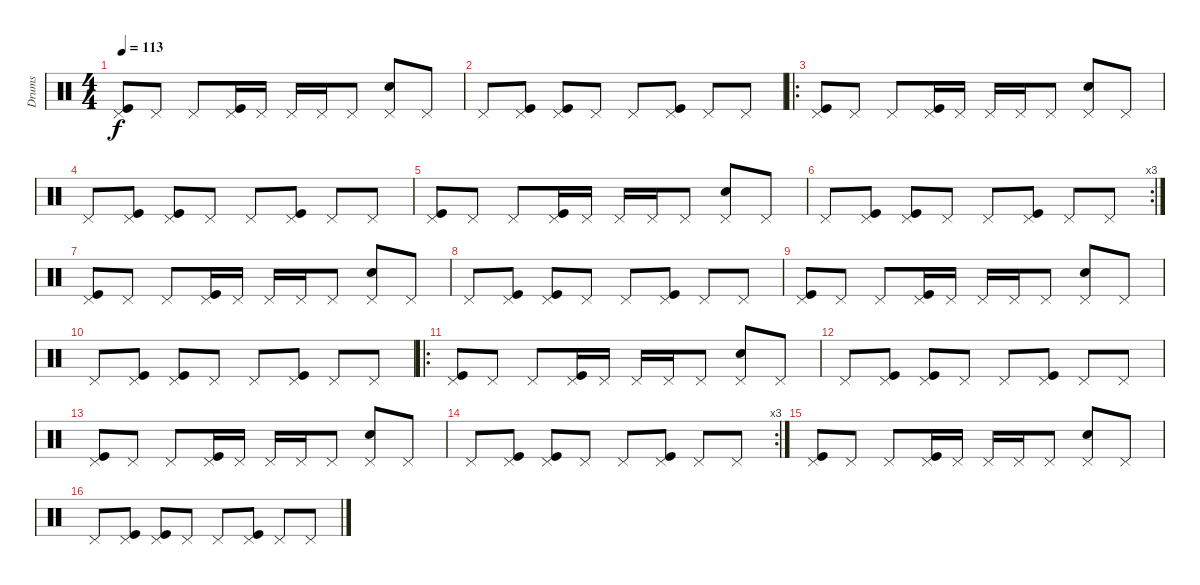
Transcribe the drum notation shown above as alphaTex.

\track ("Drums" "Drums") {instrument percussion}
\staff {score}
\articulation defaults
\ts (4 4)
\tempo 113
\clef neutral
\ks c
("Pedal Hi-Hat (hit)" "Kick (hit)").8{dy f} "Pedal Hi-Hat (hit)".8 "Pedal Hi-Hat (hit)".8 ("Pedal Hi-Hat (hit)" "Kick (hit)").16 "Pedal Hi-Hat (hit)".16 "Pedal Hi-Hat (hit)".16 "Pedal Hi-Hat (hit)".16 "Pedal Hi-Hat (hit)".8 ("Pedal Hi-Hat (hit)" "Snare (hit) 2").8 "Pedal Hi-Hat (hit)".8 |
"Pedal Hi-Hat (hit)".8 ("Pedal Hi-Hat (hit)" "Kick (hit)").8 ("Pedal Hi-Hat (hit)" "Kick (hit)").8 "Pedal Hi-Hat (hit)".8 "Pedal Hi-Hat (hit)".8 ("Pedal Hi-Hat (hit)" "Kick (hit)").8 "Pedal Hi-Hat (hit)".8 "Pedal Hi-Hat (hit)".8 |
\ro
("Pedal Hi-Hat (hit)" "Kick (hit)").8 "Pedal Hi-Hat (hit)".8 "Pedal Hi-Hat (hit)".8 ("Pedal Hi-Hat (hit)" "Kick (hit)").16 "Pedal Hi-Hat (hit)".16 "Pedal Hi-Hat (hit)".16 "Pedal Hi-Hat (hit)".16 "Pedal Hi-Hat (hit)".8 ("Pedal Hi-Hat (hit)" "Snare (hit) 2").8 "Pedal Hi-Hat (hit)".8 |
"Pedal Hi-Hat (hit)".8 ("Pedal Hi-Hat (hit)" "Kick (hit)").8 ("Pedal Hi-Hat (hit)" "Kick (hit)").8 "Pedal Hi-Hat (hit)".8 "Pedal Hi-Hat (hit)".8 ("Pedal Hi-Hat (hit)" "Kick (hit)").8 "Pedal Hi-Hat (hit)".8 "Pedal Hi-Hat (hit)".8 |
("Pedal Hi-Hat (hit)" "Kick (hit)").8 "Pedal Hi-Hat (hit)".8 "Pedal Hi-Hat (hit)".8 ("Pedal Hi-Hat (hit)" "Kick (hit)").16 "Pedal Hi-Hat (hit)".16 "Pedal Hi-Hat (hit)".16 "Pedal Hi-Hat (hit)".16 "Pedal Hi-Hat (hit)".8 ("Pedal Hi-Hat (hit)" "Snare (hit) 2").8 "Pedal Hi-Hat (hit)".8 |
\rc 3 "Pedal Hi-Hat (hit)".8
("Pedal Hi-Hat (hit)" "Kick (hit)").8 ("Pedal Hi-Hat (hit)" "Kick (hit)").8 "Pedal Hi-Hat (hit)".8 "Pedal Hi-Hat (hit)".8 ("Pedal Hi-Hat (hit)" "Kick (hit)").8 "Pedal Hi-Hat (hit)".8 "Pedal Hi-Hat (hit)".8 |
("Pedal Hi-Hat (hit)" "Kick (hit)").8 "Pedal Hi-Hat (hit)".8 "Pedal Hi-Hat (hit)".8 ("Pedal Hi-Hat (hit)" "Kick (hit)").16 "Pedal Hi-Hat (hit)".16 "Pedal Hi-Hat (hit)".16 "Pedal Hi-Hat (hit)".16 "Pedal Hi-Hat (hit)".8 ("Pedal Hi-Hat (hit)" "Snare (hit) 2").8 "Pedal Hi-Hat (hit)".8 |
"Pedal Hi-Hat (hit)".8 ("Pedal Hi-Hat (hit)" "Kick (hit)").8 ("Pedal Hi-Hat (hit)" "Kick (hit)").8 "Pedal Hi-Hat (hit)".8 "Pedal Hi-Hat (hit)".8 ("Pedal Hi-Hat (hit)" "Kick (hit)").8 "Pedal Hi-Hat (hit)".8 "Pedal Hi-Hat (hit)".8 |
("Pedal Hi-Hat (hit)" "Kick (hit)").8 "Pedal Hi-Hat (hit)".8 "Pedal Hi-Hat (hit)".8 ("Pedal Hi-Hat (hit)" "Kick (hit)").16 "Pedal Hi-Hat (hit)".16 "Pedal Hi-Hat (hit)".16 "Pedal Hi-Hat (hit)".16 "Pedal Hi-Hat (hit)".8 ("Pedal Hi-Hat (hit)" "Snare (hit) 2").8 "Pedal Hi-Hat (hit)".8 |
"Pedal Hi-Hat (hit)".8 ("Pedal Hi-Hat (hit)" "Kick (hit)").8 ("Pedal Hi-Hat (hit)" "Kick (hit)").8 "Pedal Hi-Hat (hit)".8 "Pedal Hi-Hat (hit)".8 ("Pedal Hi-Hat (hit)" "Kick (hit)").8 "Pedal Hi-Hat (hit)".8 "Pedal Hi-Hat (hit)".8 |
\ro
("Pedal Hi-Hat (hit)" "Kick (hit)").8 "Pedal Hi-Hat (hit)".8 "Pedal Hi-Hat (hit)".8 ("Pedal Hi-Hat (hit)" "Kick (hit)").16 "Pedal Hi-Hat (hit)".16 "Pedal Hi-Hat (hit)".16 "Pedal Hi-Hat (hit)".16 "Pedal Hi-Hat (hit)".8 ("Pedal Hi-Hat (hit)" "Snare (hit) 2").8 "Pedal Hi-Hat (hit)".8 |
"Pedal Hi-Hat (hit)".8 ("Pedal Hi-Hat (hit)" "Kick (hit)").8 ("Pedal Hi-Hat (hit)" "Kick (hit)").8 "Pedal Hi-Hat (hit)".8 "Pedal Hi-Hat (hit)".8 ("Pedal Hi-Hat (hit)" "Kick (hit)").8 "Pedal Hi-Hat (hit)".8 "Pedal Hi-Hat (hit)".8 |
("Pedal Hi-Hat (hit)" "Kick (hit)").8 "Pedal Hi-Hat (hit)".8 "Pedal Hi-Hat (hit)".8 ("Pedal Hi-Hat (hit)" "Kick (hit)").16 "Pedal Hi-Hat (hit)".16 "Pedal Hi-Hat (hit)".16 "Pedal Hi-Hat (hit)".16 "Pedal Hi-Hat (hit)".8 ("Pedal Hi-Hat (hit)" "Snare (hit) 2").8 "Pedal Hi-Hat (hit)".8 |
\rc 3 "Pedal Hi-Hat (hit)".8
("Pedal Hi-Hat (hit)" "Kick (hit)").8 ("Pedal Hi-Hat (hit)" "Kick (hit)").8 "Pedal Hi-Hat (hit)".8 "Pedal Hi-Hat (hit)".8 ("Pedal Hi-Hat (hit)" "Kick (hit)").8 "Pedal Hi-Hat (hit)".8 "Pedal Hi-Hat (hit)".8 |
("Pedal Hi-Hat (hit)" "Kick (hit)").8 "Pedal Hi-Hat (hit)".8 "Pedal Hi-Hat (hit)".8 ("Pedal Hi-Hat (hit)" "Kick (hit)").16 "Pedal Hi-Hat (hit)".16 "Pedal Hi-Hat (hit)".16 "Pedal Hi-Hat (hit)".16 "Pedal Hi-Hat (hit)".8 ("Pedal Hi-Hat (hit)" "Snare (hit) 2").8 "Pedal Hi-Hat (hit)".8 |
"Pedal Hi-Hat (hit)".8 ("Pedal Hi-Hat (hit)" "Kick (hit)").8 ("Pedal Hi-Hat (hit)" "Kick (hit)").8 "Pedal Hi-Hat (hit)".8 "Pedal Hi-Hat (hit)".8 ("Pedal Hi-Hat (hit)" "Kick (hit)").8 "Pedal Hi-Hat (hit)".8 "Pedal Hi-Hat (hit)".8
